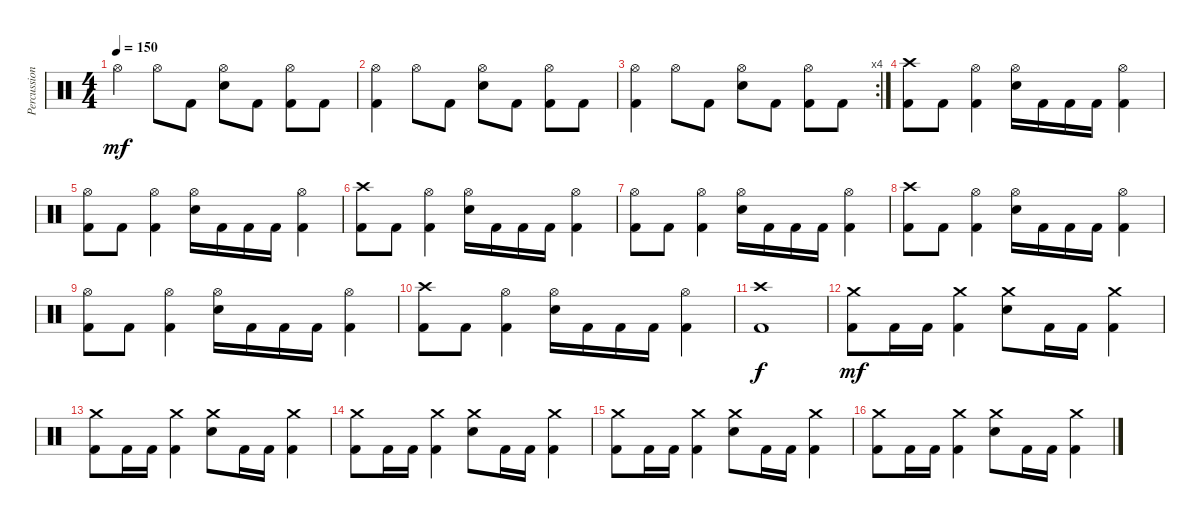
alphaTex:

\track ("Percussion" "Percussion") {instrument percussion}
\staff {score}
\articulation defaults
\ts (4 4)
\tempo 150
\clef neutral
\ks c "Hi-Hat (open)".4{dy mf} "Hi-Hat (open)".8 "Kick (hit) 2".8
("Hi-Hat (open)" "Snare (hit) 2").8 "Kick (hit) 2".8 ("Hi-Hat (open)" "Kick (hit) 2").8 "Kick (hit) 2".8 |
("Hi-Hat (open)" "Kick (hit) 2").4 "Hi-Hat (open)".8 "Kick (hit) 2".8 ("Hi-Hat (open)" "Snare (hit) 2").8 "Kick (hit) 2".8 ("Hi-Hat (open)" "Kick (hit) 2").8 "Kick (hit) 2".8 |
\rc 4
("Hi-Hat (open)" "Kick (hit) 2").4 "Hi-Hat (open)".8 "Kick (hit) 2".8 ("Hi-Hat (open)" "Snare (hit) 2").8 "Kick (hit) 2".8 ("Hi-Hat (open)" "Kick (hit) 2").8 "Kick (hit) 2".8 |
("Crash high (hit)" "Kick (hit) 2").8 "Kick (hit) 2".8 ("Hi-Hat (open)" "Kick (hit) 2").4 ("Hi-Hat (open)" "Snare (hit) 2").16 "Kick (hit) 2".16 "Kick (hit) 2".16 "Kick (hit) 2".16 ("Hi-Hat (open)" "Kick (hit) 2").4 |
("Hi-Hat (open)" "Kick (hit) 2").8 "Kick (hit) 2".8 ("Hi-Hat (open)" "Kick (hit) 2").4 ("Hi-Hat (open)" "Snare (hit) 2").16 "Kick (hit) 2".16 "Kick (hit) 2".16 "Kick (hit) 2".16 ("Hi-Hat (open)" "Kick (hit) 2").4 |
("Crash high (hit)" "Kick (hit) 2").8 "Kick (hit) 2".8 ("Hi-Hat (open)" "Kick (hit) 2").4 ("Hi-Hat (open)" "Snare (hit) 2").16 "Kick (hit) 2".16 "Kick (hit) 2".16 "Kick (hit) 2".16 ("Hi-Hat (open)" "Kick (hit) 2").4 |
("Hi-Hat (open)" "Kick (hit) 2").8 "Kick (hit) 2".8 ("Hi-Hat (open)" "Kick (hit) 2").4 ("Hi-Hat (open)" "Snare (hit) 2").16 "Kick (hit) 2".16 "Kick (hit) 2".16 "Kick (hit) 2".16 ("Hi-Hat (open)" "Kick (hit) 2").4 |
("Crash high (hit)" "Kick (hit) 2").8 "Kick (hit) 2".8 ("Hi-Hat (open)" "Kick (hit) 2").4 ("Hi-Hat (open)" "Snare (hit) 2").16 "Kick (hit) 2".16 "Kick (hit) 2".16 "Kick (hit) 2".16 ("Hi-Hat (open)" "Kick (hit) 2").4 |
("Hi-Hat (open)" "Kick (hit) 2").8 "Kick (hit) 2".8 ("Hi-Hat (open)" "Kick (hit) 2").4 ("Hi-Hat (open)" "Snare (hit) 2").16 "Kick (hit) 2".16 "Kick (hit) 2".16 "Kick (hit) 2".16 ("Hi-Hat (open)" "Kick (hit) 2").4 |
("Crash high (hit)" "Kick (hit) 2").8 "Kick (hit) 2".8 ("Hi-Hat (open)" "Kick (hit) 2").4 ("Hi-Hat (open)" "Snare (hit) 2").16 "Kick (hit) 2".16 "Kick (hit) 2".16 "Kick (hit) 2".16 ("Hi-Hat (open)" "Kick (hit) 2").4 |
("Crash high (hit)" "Kick (hit) 2").1{dy f} |
("Crash medium (hit)" "Kick (hit) 2").8{dy mf} "Kick (hit) 2".16 "Kick (hit) 2".16 ("Crash medium (hit)" "Kick (hit) 2").4 ("Crash medium (hit)" "Snare (hit) 2").8 "Kick (hit) 2".16 "Kick (hit) 2".16 ("Crash medium (hit)" "Kick (hit) 2").4 |
("Crash medium (hit)" "Kick (hit) 2").8 "Kick (hit) 2".16 "Kick (hit) 2".16 ("Crash medium (hit)" "Kick (hit) 2").4 ("Crash medium (hit)" "Snare (hit) 2").8 "Kick (hit) 2".16 "Kick (hit) 2".16 ("Crash medium (hit)" "Kick (hit) 2").4 |
("Crash medium (hit)" "Kick (hit) 2").8 "Kick (hit) 2".16 "Kick (hit) 2".16 ("Crash medium (hit)" "Kick (hit) 2").4 ("Crash medium (hit)" "Snare (hit) 2").8 "Kick (hit) 2".16 "Kick (hit) 2".16 ("Crash medium (hit)" "Kick (hit) 2").4 |
("Crash medium (hit)" "Kick (hit) 2").8 "Kick (hit) 2".16 "Kick (hit) 2".16 ("Crash medium (hit)" "Kick (hit) 2").4 ("Crash medium (hit)" "Snare (hit) 2").8 "Kick (hit) 2".16 "Kick (hit) 2".16 ("Crash medium (hit)" "Kick (hit) 2").4 |
("Crash medium (hit)" "Kick (hit) 2").8 "Kick (hit) 2".16 "Kick (hit) 2".16 ("Crash medium (hit)" "Kick (hit) 2").4 ("Crash medium (hit)" "Snare (hit) 2").8 "Kick (hit) 2".16 "Kick (hit) 2".16 ("Crash medium (hit)" "Kick (hit) 2").4
